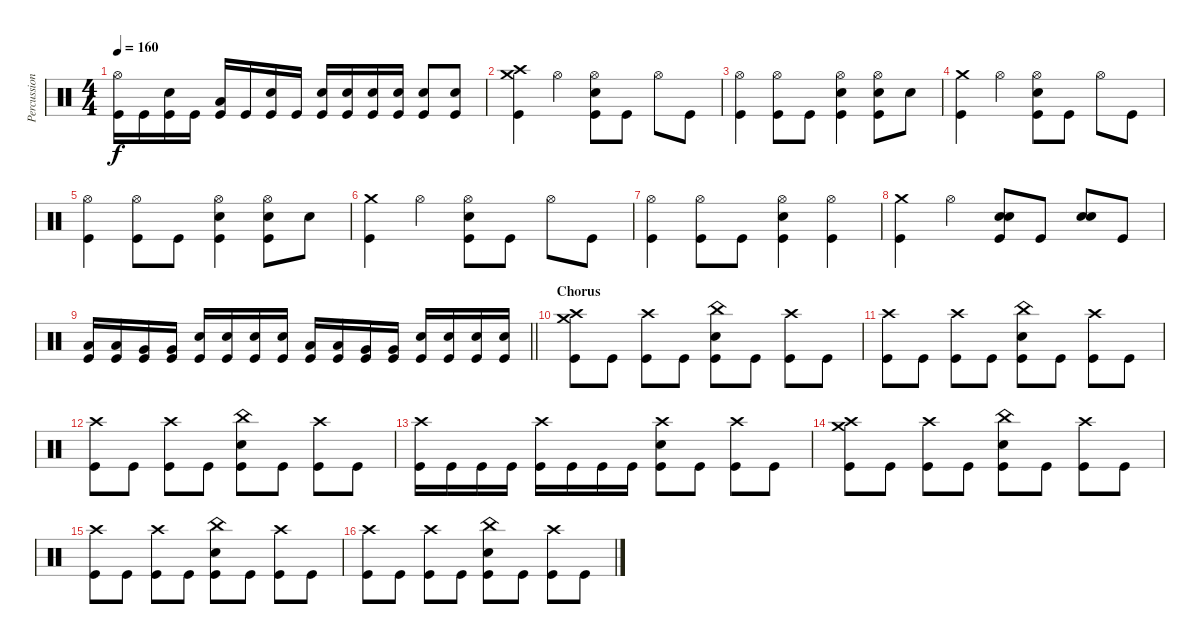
\track ("Percussion" "Percussion") {instrument percussion}
\staff {score}
\articulation defaults
\ts (4 4)
\tempo 160
\clef neutral
\ks c
("Hi-Hat (open)" "Kick (hit)").16{dy f} "Kick (hit)".16 ("Electric Snare (hit)" "Kick (hit)").16 "Kick (hit)".16 ("Low Tom (hit)" "Kick (hit)").16 "Kick (hit)".16 ("Electric Snare (hit)" "Kick (hit)").16 "Kick (hit)".16 ("Electric Snare (hit)" "Kick (hit)").16 ("Electric Snare (hit)" "Kick (hit)").16 ("Electric Snare (hit)" "Kick (hit)").16 ("Electric Snare (hit)" "Kick (hit)").16 ("Electric Snare (hit)" "Kick (hit)").8 ("Electric Snare (hit)" "Kick (hit)").8 |
("Crash high (hit)" "Crash medium (hit)" "Kick (hit)").4 "Hi-Hat (open)".4 ("Hi-Hat (open)" "Electric Snare (hit)" "Kick (hit)").8 "Kick (hit)".8 "Hi-Hat (open)".8 "Kick (hit)".8 |
("Hi-Hat (open)" "Kick (hit)").4 ("Hi-Hat (open)" "Kick (hit)").8 "Kick (hit)".8 ("Hi-Hat (open)" "Electric Snare (hit)" "Kick (hit)").4 ("Hi-Hat (open)" "Electric Snare (hit)" "Kick (hit)").8 "Electric Snare (hit)".8 |
("Crash medium (hit)" "Kick (hit)").4 "Hi-Hat (open)".4 ("Hi-Hat (open)" "Electric Snare (hit)" "Kick (hit)").8 "Kick (hit)".8 "Hi-Hat (open)".8 "Kick (hit)".8 |
("Hi-Hat (open)" "Kick (hit)").4 ("Hi-Hat (open)" "Kick (hit)").8 "Kick (hit)".8 ("Hi-Hat (open)" "Electric Snare (hit)" "Kick (hit)").4 ("Hi-Hat (open)" "Electric Snare (hit)" "Kick (hit)").8 "Electric Snare (hit)".8 |
("Crash medium (hit)" "Kick (hit)").4 "Hi-Hat (open)".4 ("Hi-Hat (open)" "Electric Snare (hit)" "Kick (hit)").8 "Kick (hit)".8 "Hi-Hat (open)".8 "Kick (hit)".8 |
("Hi-Hat (open)" "Kick (hit)").4 ("Hi-Hat (open)" "Kick (hit)").8 "Kick (hit)".8 ("Hi-Hat (open)" "Electric Snare (hit)" "Kick (hit)").4 ("Hi-Hat (open)" "Kick (hit)").4 |
("Crash medium (hit)" "Kick (hit)").4 "Hi-Hat (open)".4 ("Electric Snare (hit)" "Electric Snare (hit)" "Kick (hit)").8 "Kick (hit)".8 ("Electric Snare (hit)" "Electric Snare (hit)").8 "Kick (hit)".8 |
\barLineRight lightlight
("Low Tom (hit)" "Kick (hit)").16 ("Low Tom (hit)" "Kick (hit)").16 ("Very Low Tom (hit)" "Kick (hit)").16 ("Very Low Tom (hit)" "Kick (hit)").16 ("Electric Snare (hit)" "Kick (hit)").16 ("Electric Snare (hit)" "Kick (hit)").16 ("Electric Snare (hit)" "Kick (hit)").16 ("Electric Snare (hit)" "Kick (hit)").16 ("Low Tom (hit)" "Kick (hit)").16 ("Low Tom (hit)" "Kick (hit)").16 ("Very Low Tom (hit)" "Kick (hit)").16 ("Very Low Tom (hit)" "Kick (hit)").16 ("Electric Snare (hit)" "Kick (hit)").16 ("Electric Snare (hit)" "Kick (hit)").16 ("Electric Snare (hit)" "Kick (hit)").16 ("Electric Snare (hit)" "Kick (hit)").16 |
\section ("" "Chorus")
("Crash medium (hit)" "Crash high (hit)" "Kick (hit)").8 "Kick (hit)".8 ("Crash high (hit)" "Kick (hit)").8 "Kick (hit)".8 ("China (hit)" "Electric Snare (hit)" "Kick (hit)").8 "Kick (hit)".8 ("Crash high (hit)" "Kick (hit)").8 "Kick (hit)".8 |
("Crash high (hit)" "Kick (hit)").8 "Kick (hit)".8 ("Crash high (hit)" "Kick (hit)").8 "Kick (hit)".8 ("China (hit)" "Electric Snare (hit)" "Kick (hit)").8 "Kick (hit)".8 ("Crash high (hit)" "Kick (hit)").8 "Kick (hit)".8 |
("Crash high (hit)" "Kick (hit)").8 "Kick (hit)".8 ("Crash high (hit)" "Kick (hit)").8 "Kick (hit)".8 ("China (hit)" "Electric Snare (hit)" "Kick (hit)").8 "Kick (hit)".8 ("Crash high (hit)" "Kick (hit)").8 "Kick (hit)".8 |
("Crash high (hit)" "Kick (hit)").16 "Kick (hit)".16 "Kick (hit)".16 "Kick (hit)".16 ("Crash high (hit)" "Kick (hit)").16 "Kick (hit)".16 "Kick (hit)".16 "Kick (hit)".16 ("Crash high (hit)" "Electric Snare (hit)" "Kick (hit)").8 "Kick (hit)".8 ("Crash high (hit)" "Kick (hit)").8 "Kick (hit)".8 |
("Crash medium (hit)" "Crash high (hit)" "Kick (hit)").8 "Kick (hit)".8 ("Crash high (hit)" "Kick (hit)").8 "Kick (hit)".8 ("China (hit)" "Electric Snare (hit)" "Kick (hit)").8 "Kick (hit)".8 ("Crash high (hit)" "Kick (hit)").8 "Kick (hit)".8 |
("Crash high (hit)" "Kick (hit)").8 "Kick (hit)".8 ("Crash high (hit)" "Kick (hit)").8 "Kick (hit)".8 ("China (hit)" "Electric Snare (hit)" "Kick (hit)").8 "Kick (hit)".8 ("Crash high (hit)" "Kick (hit)").8 "Kick (hit)".8 |
("Crash high (hit)" "Kick (hit)").8 "Kick (hit)".8 ("Crash high (hit)" "Kick (hit)").8 "Kick (hit)".8 ("China (hit)" "Electric Snare (hit)" "Kick (hit)").8 "Kick (hit)".8 ("Crash high (hit)" "Kick (hit)").8 "Kick (hit)".8
